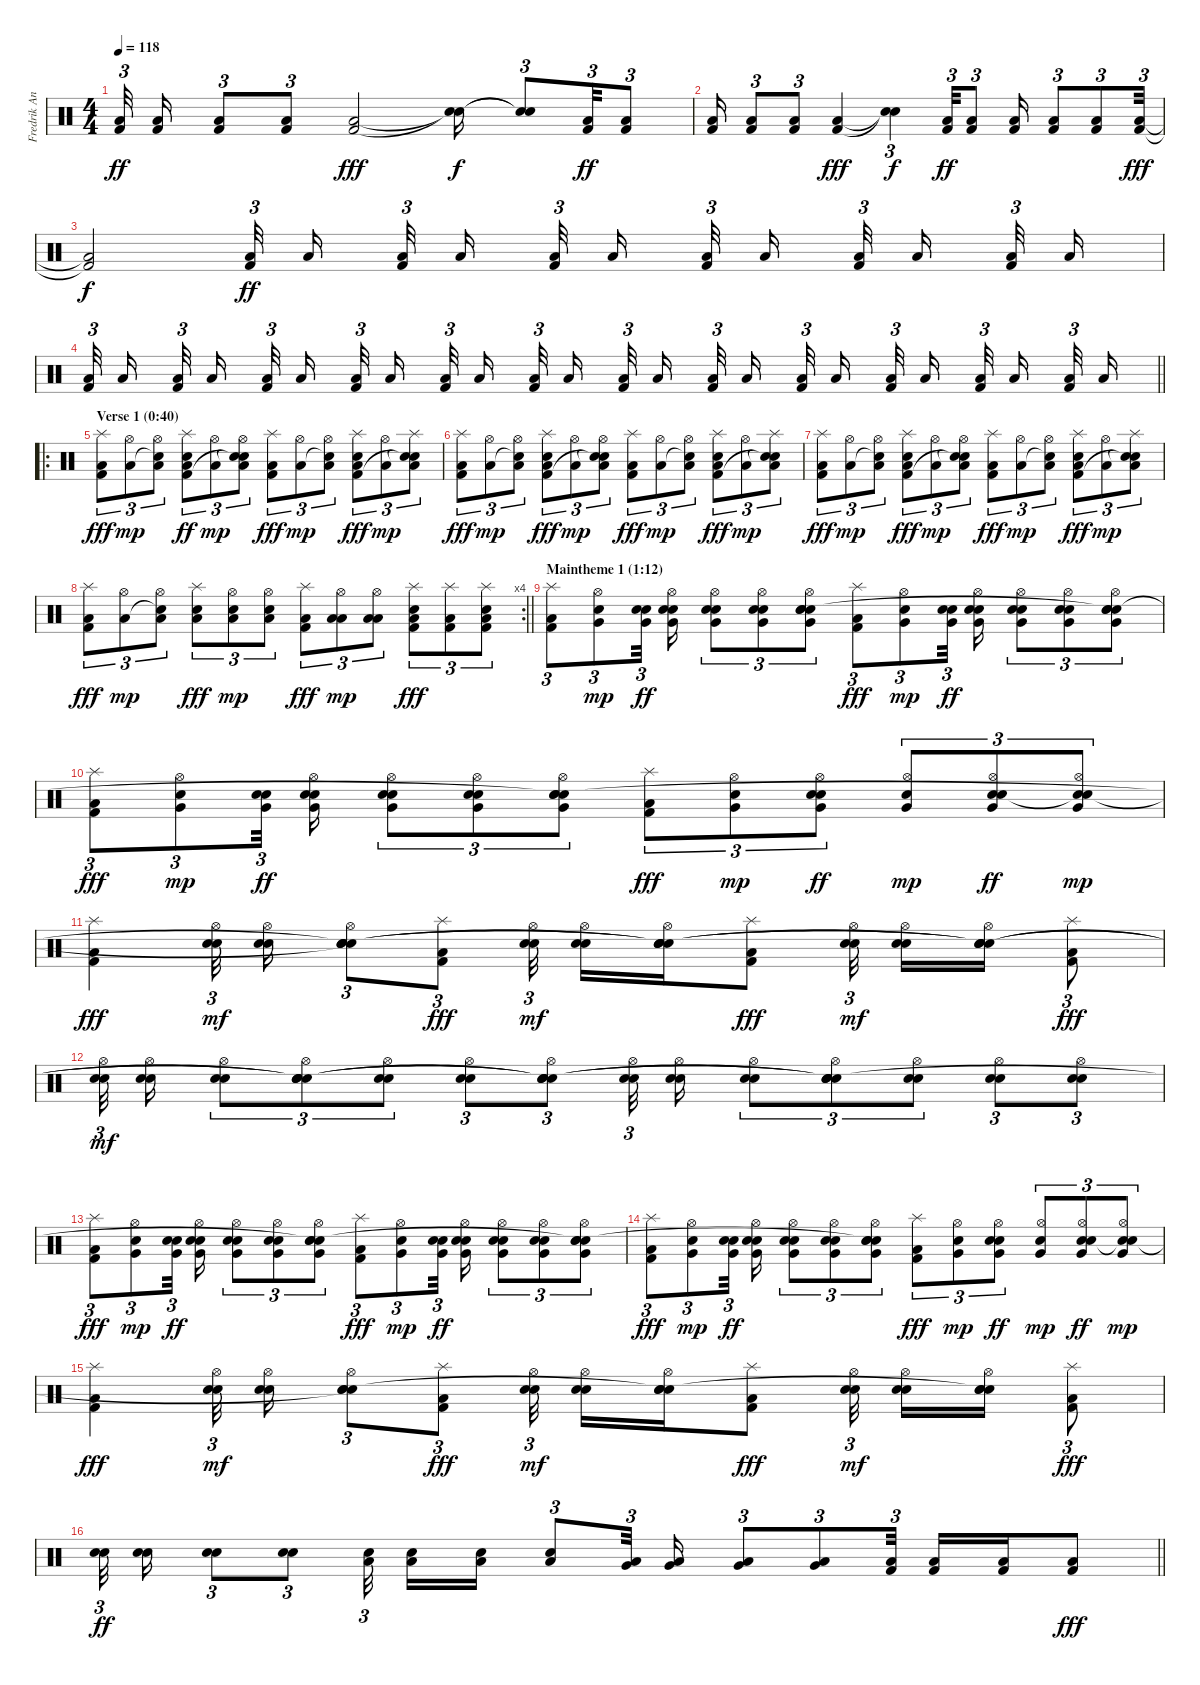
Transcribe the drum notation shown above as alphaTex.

\track ("Fredrik Andersson " "Fredrik An") {instrument percussion}
\staff {score}
\articulation defaults
\ts (4 4)
\tempo 118
\clef neutral
\ks c
("Kick (hit) 2" "Low Floor Tom (hit)").32{tu (3 2) dy ff volume 10 beam splitsecondary} ("Kick (hit) 2" "Low Floor Tom (hit)").16 ("Kick (hit) 2" "Low Floor Tom (hit)").8{tu (3 2)} ("Kick (hit) 2" "Low Floor Tom (hit)").8{tu (3 2)} ("Kick (hit) 2" "Low Floor Tom (hit)").2{dy fff} ("Snare (hit)"{t} "Snare (hit)"{t}).16{dy f} ("Snare (hit)"{t} "Snare (hit)"{t}).8{tu (3 2)} ("Kick (hit) 2" "Low Floor Tom (hit)").32{tu (3 2) dy ff} ("Kick (hit) 2" "Low Floor Tom (hit)").8{tu (3 2)} |
("Kick (hit) 2" "Low Floor Tom (hit)").16 ("Kick (hit) 2" "Low Floor Tom (hit)").8{tu (3 2)} ("Kick (hit) 2" "Low Floor Tom (hit)").8{tu (3 2)} ("Kick (hit) 2" "Low Floor Tom (hit)").4{dy fff} ("Snare (hit)"{t} "Snare (hit)"{t}).4{tu (3 2) dy f} ("Kick (hit) 2" "Low Floor Tom (hit)").32{tu (3 2) dy ff} ("Kick (hit) 2" "Low Floor Tom (hit)").8{tu (3 2)} ("Kick (hit) 2" "Low Floor Tom (hit)").16 ("Kick (hit) 2" "Low Floor Tom (hit)").8{tu (3 2)} ("Kick (hit) 2" "Low Floor Tom (hit)").8{tu (3 2)} ("Kick (hit) 2" "Low Floor Tom (hit)").32{tu (3 2) dy fff} |
("Kick (hit) 2"{t} "Low Floor Tom (hit)"{t}).2{dy f volume 1} ("Kick (hit) 2" "Low Floor Tom (hit)").32{tu (3 2) dy ff volume 16 beam splitsecondary} "Low Floor Tom (hit)".16{beam splitsecondary} ("Kick (hit) 2" "Low Floor Tom (hit)").32{tu (3 2) beam splitsecondary} "Low Floor Tom (hit)".16{beam splitsecondary} ("Kick (hit) 2" "Low Floor Tom (hit)").32{tu (3 2)} "Low Floor Tom (hit)".16 ("Kick (hit) 2" "Low Floor Tom (hit)").32{tu (3 2) beam splitsecondary} "Low Floor Tom (hit)".16{beam splitsecondary} ("Kick (hit) 2" "Low Floor Tom (hit)").32{tu (3 2) beam splitsecondary} "Low Floor Tom (hit)".16{beam splitsecondary} ("Kick (hit) 2" "Low Floor Tom (hit)").32{tu (3 2)} "Low Floor Tom (hit)".16 |
\barLineRight lightlight
("Kick (hit) 2" "Low Floor Tom (hit)").32{tu (3 2) beam splitsecondary} "Low Floor Tom (hit)".16{beam splitsecondary} ("Kick (hit) 2" "Low Floor Tom (hit)").32{tu (3 2) beam splitsecondary} "Low Floor Tom (hit)".16{beam splitsecondary} ("Kick (hit) 2" "Low Floor Tom (hit)").32{tu (3 2)} "Low Floor Tom (hit)".16 ("Kick (hit) 2" "Low Floor Tom (hit)").32{tu (3 2) beam splitsecondary} "Low Floor Tom (hit)".16{beam splitsecondary} ("Kick (hit) 2" "Low Floor Tom (hit)").32{tu (3 2) beam splitsecondary} "Low Floor Tom (hit)".16{beam splitsecondary} ("Kick (hit) 2" "Low Floor Tom (hit)").32{tu (3 2)} "Low Floor Tom (hit)".16 ("Kick (hit) 2" "Low Floor Tom (hit)").32{tu (3 2) beam splitsecondary} "Low Floor Tom (hit)".16{beam splitsecondary} ("Kick (hit) 2" "Low Floor Tom (hit)").32{tu (3 2) beam splitsecondary} "Low Floor Tom (hit)".16{beam splitsecondary} ("Kick (hit) 2" "Low Floor Tom (hit)").32{tu (3 2)} "Low Floor Tom (hit)".16 ("Kick (hit) 2" "Low Floor Tom (hit)").32{tu (3 2) beam splitsecondary} "Low Floor Tom (hit)".16{beam splitsecondary} ("Kick (hit) 2" "Low Floor Tom (hit)").32{tu (3 2) beam splitsecondary} "Low Floor Tom (hit)".16{beam splitsecondary} ("Kick (hit) 2" "Low Floor Tom (hit)").32{tu (3 2)} "Low Floor Tom (hit)".16 |
\ro
\section ("" "Verse 1 (0:40)")
("Splash (hit)" "Kick (hit) 2" "Low Floor Tom (hit)").8{tu (3 2) dy fff volume 13} ("Hi-Hat (open)" "Low Floor Tom (hit)").8{tu (3 2) dy mp} ("Hi-Hat (open)" "Snare (hit)"{t} "Low Floor Tom (hit)").8{tu (3 2)} ("Splash (hit)" "Snare (hit) 2" "Kick (hit) 2" "Low Floor Tom (hit)").8{tu (3 2) dy ff} ("Hi-Hat (open)" "Low Floor Tom (hit)").8{tu (3 2) dy mp} ("Hi-Hat (open)" "Snare (hit)"{t} "Snare (hit)"{t} "Low Floor Tom (hit)").8{tu (3 2)} ("Splash (hit)" "Kick (hit) 2" "Low Floor Tom (hit)").8{tu (3 2) dy fff} ("Hi-Hat (open)" "Low Floor Tom (hit)").8{tu (3 2) dy mp} ("Hi-Hat (open)" "Snare (hit)"{t} "Low Floor Tom (hit)").8{tu (3 2)} ("Splash (hit)" "Snare (hit) 2" "Kick (hit) 2" "Low Floor Tom (hit)").8{tu (3 2) dy fff} ("Hi-Hat (open)" "Low Floor Tom (hit)").8{tu (3 2) dy mp} ("Splash (hit)" "Snare (hit)"{t} "Snare (hit)"{t} "Low Floor Tom (hit)").8{tu (3 2)} |
("Splash (hit)" "Kick (hit) 2" "Low Floor Tom (hit)").8{tu (3 2) dy fff} ("Hi-Hat (open)" "Low Floor Tom (hit)").8{tu (3 2) dy mp} ("Hi-Hat (open)" "Snare (hit)"{t} "Low Floor Tom (hit)").8{tu (3 2)} ("Splash (hit)" "Snare (hit) 2" "Kick (hit) 2" "Low Floor Tom (hit)").8{tu (3 2) dy fff} ("Hi-Hat (open)" "Low Floor Tom (hit)").8{tu (3 2) dy mp} ("Hi-Hat (open)" "Snare (hit)"{t} "Snare (hit)"{t} "Low Floor Tom (hit)").8{tu (3 2)} ("Splash (hit)" "Kick (hit) 2" "Low Floor Tom (hit)").8{tu (3 2) dy fff} ("Hi-Hat (open)" "Low Floor Tom (hit)").8{tu (3 2) dy mp} ("Hi-Hat (open)" "Snare (hit)"{t} "Low Floor Tom (hit)").8{tu (3 2)} ("Splash (hit)" "Snare (hit) 2" "Kick (hit) 2" "Low Floor Tom (hit)").8{tu (3 2) dy fff} ("Hi-Hat (open)" "Low Floor Tom (hit)").8{tu (3 2) dy mp} ("Splash (hit)" "Snare (hit)"{t} "Snare (hit)"{t} "Low Floor Tom (hit)").8{tu (3 2)} |
("Splash (hit)" "Kick (hit) 2" "Low Floor Tom (hit)").8{tu (3 2) dy fff} ("Hi-Hat (open)" "Low Floor Tom (hit)").8{tu (3 2) dy mp} ("Hi-Hat (open)" "Snare (hit)"{t} "Low Floor Tom (hit)").8{tu (3 2)} ("Splash (hit)" "Snare (hit) 2" "Kick (hit) 2" "Low Floor Tom (hit)").8{tu (3 2) dy fff} ("Hi-Hat (open)" "Low Floor Tom (hit)").8{tu (3 2) dy mp} ("Hi-Hat (open)" "Snare (hit)"{t} "Snare (hit)"{t} "Low Floor Tom (hit)").8{tu (3 2)} ("Splash (hit)" "Kick (hit) 2" "Low Floor Tom (hit)").8{tu (3 2) dy fff} ("Hi-Hat (open)" "Low Floor Tom (hit)").8{tu (3 2) dy mp} ("Hi-Hat (open)" "Snare (hit)"{t} "Low Floor Tom (hit)").8{tu (3 2)} ("Splash (hit)" "Snare (hit) 2" "Kick (hit) 2" "Low Floor Tom (hit)").8{tu (3 2) dy fff} ("Hi-Hat (open)" "Low Floor Tom (hit)").8{tu (3 2) dy mp} ("Splash (hit)" "Snare (hit)"{t} "Snare (hit)"{t} "Low Floor Tom (hit)").8{tu (3 2)} |
\rc 4
\barLineRight lightlight
("Splash (hit)" "Kick (hit) 2" "Low Floor Tom (hit)").8{tu (3 2) dy fff} ("Hi-Hat (open)" "Low Floor Tom (hit)").8{tu (3 2) dy mp} ("Hi-Hat (open)" "Snare (hit)"{t} "Low Floor Tom (hit)").8{tu (3 2)} ("Splash (hit)" "Snare (hit) 2" "Low Floor Tom (hit)").8{tu (3 2) dy fff} ("Hi-Hat (open)" "Snare (hit) 2" "Low Floor Tom (hit)").8{tu (3 2) dy mp} ("Hi-Hat (open)" "Snare (hit) 2" "Low Floor Tom (hit)").8{tu (3 2)} ("Splash (hit)" "Kick (hit) 2" "Low Floor Tom (hit)").8{tu (3 2) dy fff} ("Hi-Hat (open)" "Low Tom (hit)" "Low Floor Tom (hit)").8{tu (3 2) dy mp} ("Hi-Hat (open)" "Low Tom (hit)" "Low Floor Tom (hit)").8{tu (3 2)} ("Splash (hit)" "Snare (hit) 2" "Kick (hit) 2" "Low Floor Tom (hit)").8{tu (3 2) dy fff} ("Splash (hit)" "Kick (hit) 2" "Low Floor Tom (hit)").8{tu (3 2)} ("Splash (hit)" "Snare (hit) 2" "Kick (hit) 2" "Low Floor Tom (hit)").8{tu (3 2)} |
\section ("" "Maintheme 1 (1:12)")
("Splash (hit)" "Kick (hit) 2" "Low Floor Tom (hit)").8{tu (3 2)} ("Hi-Hat (open)" "Very Low Tom (hit)" "Snare (hit) 2").8{tu (3 2) dy mp} ("Very Low Tom (hit)" "Snare (hit) 2" "Electric Snare (hit)").32{tu (3 2) dy ff beam splitsecondary} ("Hi-Hat (open)" "Very Low Tom (hit)" "Snare (hit) 2" "Electric Snare (hit)").16 ("Hi-Hat (open)" "Very Low Tom (hit)" "Snare (hit) 2" "Electric Snare (hit)").8{tu (3 2)} ("Hi-Hat (open)" "Very Low Tom (hit)" "Snare (hit) 2" "Electric Snare (hit)").8{tu (3 2)} ("Hi-Hat (open)" "Very Low Tom (hit)" "Snare (hit) 2" "Electric Snare (hit)" "Snare (hit)").8{tu (3 2)} ("Splash (hit)" "Kick (hit) 2" "Low Floor Tom (hit)").8{tu (3 2) dy fff} ("Hi-Hat (open)" "Very Low Tom (hit)" "Snare (hit) 2").8{tu (3 2) dy mp} ("Very Low Tom (hit)" "Snare (hit) 2" "Electric Snare (hit)").32{tu (3 2) dy ff beam splitsecondary} ("Hi-Hat (open)" "Very Low Tom (hit)" "Snare (hit) 2" "Electric Snare (hit)").16 ("Hi-Hat (open)" "Very Low Tom (hit)" "Snare (hit) 2" "Electric Snare (hit)").8{tu (3 2)} ("Hi-Hat (open)" "Very Low Tom (hit)" "Snare (hit) 2" "Electric Snare (hit)").8{tu (3 2)} ("Hi-Hat (open)" "Very Low Tom (hit)" "Snare (hit) 2" "Electric Snare (hit)" "Snare (hit)"{t}).8{tu (3 2)} |
("Splash (hit)" "Kick (hit) 2" "Low Floor Tom (hit)").8{tu (3 2) dy fff} ("Hi-Hat (open)" "Very Low Tom (hit)" "Snare (hit) 2").8{tu (3 2) dy mp} ("Very Low Tom (hit)" "Snare (hit) 2" "Electric Snare (hit)").32{tu (3 2) dy ff beam splitsecondary} ("Hi-Hat (open)" "Very Low Tom (hit)" "Snare (hit) 2" "Electric Snare (hit)").16 ("Hi-Hat (open)" "Very Low Tom (hit)" "Snare (hit) 2" "Electric Snare (hit)").8{tu (3 2)} ("Hi-Hat (open)" "Very Low Tom (hit)" "Snare (hit) 2" "Electric Snare (hit)").8{tu (3 2)} ("Hi-Hat (open)" "Very Low Tom (hit)" "Snare (hit) 2" "Electric Snare (hit)" "Snare (hit)"{t}).8{tu (3 2)} ("Splash (hit)" "Kick (hit) 2" "Low Floor Tom (hit)").8{tu (3 2) dy fff} ("Hi-Hat (open)" "Very Low Tom (hit)" "Snare (hit) 2").8{tu (3 2) dy mp} ("Hi-Hat (open)" "Very Low Tom (hit)" "Snare (hit) 2" "Electric Snare (hit)").8{tu (3 2) dy ff} ("Hi-Hat (open)" "Very Low Tom (hit)" "Snare (hit) 2").8{tu (3 2) dy mp} ("Hi-Hat (open)" "Very Low Tom (hit)" "Snare (hit) 2" "Electric Snare (hit)").8{tu (3 2) dy ff} ("Hi-Hat (open)" "Very Low Tom (hit)" "Snare (hit) 2" "Snare (hit)"{t}).8{tu (3 2) dy mp} |
("Splash (hit)" "Kick (hit) 2" "Low Floor Tom (hit)").4{dy fff} ("Hi-Hat (open)" "Snare (hit) 2" "Electric Snare (hit)").32{tu (3 2) dy mf beam splitsecondary} ("Hi-Hat (open)" "Snare (hit) 2" "Electric Snare (hit)").16 ("Hi-Hat (open)" "Snare (hit) 2" "Electric Snare (hit)" "Snare (hit)"{t} "Snare (hit)"{t}).8{tu (3 2)} ("Splash (hit)" "Kick (hit) 2" "Low Floor Tom (hit)").8{tu (3 2) dy fff} ("Hi-Hat (open)" "Snare (hit) 2" "Electric Snare (hit)").32{tu (3 2) dy mf beam splitsecondary} ("Hi-Hat (open)" "Snare (hit) 2" "Electric Snare (hit)").16 ("Hi-Hat (open)" "Snare (hit) 2" "Electric Snare (hit)" "Snare (hit)"{t} "Snare (hit)"{t}).16 ("Splash (hit)" "Kick (hit) 2" "Low Floor Tom (hit)").8{dy fff} ("Hi-Hat (open)" "Snare (hit) 2" "Electric Snare (hit)").32{tu (3 2) dy mf beam splitsecondary} ("Hi-Hat (open)" "Snare (hit) 2" "Electric Snare (hit)").16 ("Hi-Hat (open)" "Snare (hit) 2" "Electric Snare (hit)" "Snare (hit)"{t} "Snare (hit)"{t}).16 ("Splash (hit)" "Kick (hit) 2" "Low Floor Tom (hit)").8{tu (3 2) dy fff} |
("Hi-Hat (open)" "Snare (hit) 2" "Electric Snare (hit)").32{tu (3 2) dy mf beam splitsecondary} ("Hi-Hat (open)" "Snare (hit) 2" "Electric Snare (hit)").16 ("Hi-Hat (open)" "Snare (hit) 2" "Electric Snare (hit)").8{tu (3 2)} ("Hi-Hat (open)" "Snare (hit) 2" "Electric Snare (hit)" "Snare (hit)"{t} "Snare (hit)"{t}).8{tu (3 2)} ("Hi-Hat (open)" "Snare (hit) 2" "Electric Snare (hit)").8{tu (3 2)} ("Hi-Hat (open)" "Snare (hit) 2" "Electric Snare (hit)").8{tu (3 2)} ("Hi-Hat (open)" "Snare (hit) 2" "Electric Snare (hit)" "Snare (hit)"{t} "Snare (hit)"{t}).8{tu (3 2)} ("Hi-Hat (open)" "Snare (hit) 2" "Electric Snare (hit)").32{tu (3 2) beam splitsecondary} ("Hi-Hat (open)" "Snare (hit) 2" "Electric Snare (hit)").16 ("Hi-Hat (open)" "Snare (hit) 2" "Electric Snare (hit)").8{tu (3 2)} ("Hi-Hat (open)" "Snare (hit) 2" "Electric Snare (hit)" "Snare (hit)"{t} "Snare (hit)"{t}).8{tu (3 2)} ("Hi-Hat (open)" "Snare (hit) 2" "Electric Snare (hit)").8{tu (3 2)} ("Hi-Hat (open)" "Snare (hit) 2" "Electric Snare (hit)").8{tu (3 2)} ("Hi-Hat (open)" "Snare (hit) 2" "Electric Snare (hit)").8{tu (3 2)} |
("Splash (hit)" "Kick (hit) 2" "Low Floor Tom (hit)").8{tu (3 2) dy fff} ("Hi-Hat (open)" "Very Low Tom (hit)" "Snare (hit) 2").8{tu (3 2) dy mp} ("Very Low Tom (hit)" "Snare (hit) 2" "Electric Snare (hit)").32{tu (3 2) dy ff beam splitsecondary} ("Hi-Hat (open)" "Very Low Tom (hit)" "Snare (hit) 2" "Electric Snare (hit)").16 ("Hi-Hat (open)" "Very Low Tom (hit)" "Snare (hit) 2" "Electric Snare (hit)").8{tu (3 2)} ("Hi-Hat (open)" "Very Low Tom (hit)" "Snare (hit) 2" "Electric Snare (hit)").8{tu (3 2)} ("Hi-Hat (open)" "Very Low Tom (hit)" "Snare (hit) 2" "Electric Snare (hit)" "Snare (hit)"{t}).8{tu (3 2)} ("Splash (hit)" "Kick (hit) 2" "Low Floor Tom (hit)").8{tu (3 2) dy fff} ("Hi-Hat (open)" "Very Low Tom (hit)" "Snare (hit) 2").8{tu (3 2) dy mp} ("Very Low Tom (hit)" "Snare (hit) 2" "Electric Snare (hit)").32{tu (3 2) dy ff beam splitsecondary} ("Hi-Hat (open)" "Very Low Tom (hit)" "Snare (hit) 2" "Electric Snare (hit)").16 ("Hi-Hat (open)" "Very Low Tom (hit)" "Snare (hit) 2" "Electric Snare (hit)").8{tu (3 2)} ("Hi-Hat (open)" "Very Low Tom (hit)" "Snare (hit) 2" "Electric Snare (hit)").8{tu (3 2)} ("Hi-Hat (open)" "Very Low Tom (hit)" "Snare (hit) 2" "Electric Snare (hit)" "Snare (hit)"{t}).8{tu (3 2)} |
("Splash (hit)" "Kick (hit) 2" "Low Floor Tom (hit)").8{tu (3 2) dy fff} ("Hi-Hat (open)" "Very Low Tom (hit)" "Snare (hit) 2").8{tu (3 2) dy mp} ("Very Low Tom (hit)" "Snare (hit) 2" "Electric Snare (hit)").32{tu (3 2) dy ff beam splitsecondary} ("Hi-Hat (open)" "Very Low Tom (hit)" "Snare (hit) 2" "Electric Snare (hit)").16 ("Hi-Hat (open)" "Very Low Tom (hit)" "Snare (hit) 2" "Electric Snare (hit)").8{tu (3 2)} ("Hi-Hat (open)" "Very Low Tom (hit)" "Snare (hit) 2" "Electric Snare (hit)").8{tu (3 2)} ("Hi-Hat (open)" "Very Low Tom (hit)" "Snare (hit) 2" "Electric Snare (hit)" "Snare (hit)"{t}).8{tu (3 2)} ("Splash (hit)" "Kick (hit) 2" "Low Floor Tom (hit)").8{tu (3 2) dy fff} ("Hi-Hat (open)" "Very Low Tom (hit)" "Snare (hit) 2").8{tu (3 2) dy mp} ("Hi-Hat (open)" "Very Low Tom (hit)" "Snare (hit) 2" "Electric Snare (hit)").8{tu (3 2) dy ff} ("Hi-Hat (open)" "Very Low Tom (hit)" "Snare (hit) 2").8{tu (3 2) dy mp} ("Hi-Hat (open)" "Very Low Tom (hit)" "Snare (hit) 2" "Electric Snare (hit)").8{tu (3 2) dy ff} ("Hi-Hat (open)" "Very Low Tom (hit)" "Snare (hit) 2" "Snare (hit)"{t}).8{tu (3 2) dy mp} |
("Splash (hit)" "Kick (hit) 2" "Low Floor Tom (hit)").4{dy fff} ("Hi-Hat (open)" "Snare (hit) 2" "Electric Snare (hit)").32{tu (3 2) dy mf beam splitsecondary} ("Hi-Hat (open)" "Snare (hit) 2" "Electric Snare (hit)").16 ("Hi-Hat (open)" "Snare (hit) 2" "Electric Snare (hit)" "Snare (hit)"{t}).8{tu (3 2)} ("Splash (hit)" "Kick (hit) 2" "Low Floor Tom (hit)").8{tu (3 2) dy fff} ("Hi-Hat (open)" "Snare (hit) 2" "Electric Snare (hit)").32{tu (3 2) dy mf beam splitsecondary} ("Hi-Hat (open)" "Snare (hit) 2" "Electric Snare (hit)").16 ("Hi-Hat (open)" "Snare (hit) 2" "Electric Snare (hit)" "Snare (hit)"{t}).16 ("Splash (hit)" "Kick (hit) 2" "Low Floor Tom (hit)").8{dy fff} ("Hi-Hat (open)" "Snare (hit) 2" "Electric Snare (hit)").32{tu (3 2) dy mf beam splitsecondary} ("Hi-Hat (open)" "Snare (hit) 2" "Electric Snare (hit)").16 ("Hi-Hat (open)" "Snare (hit) 2" "Electric Snare (hit)" "Snare (hit)"{t}).16 ("Splash (hit)" "Kick (hit) 2" "Low Floor Tom (hit)").8{tu (3 2) dy fff} |
\barLineRight lightlight
("Snare (hit) 2" "Electric Snare (hit)").32{tu (3 2) dy ff beam splitsecondary} ("Snare (hit) 2" "Electric Snare (hit)").16 ("Snare (hit) 2" "Electric Snare (hit)").8{tu (3 2)} ("Snare (hit) 2" "Electric Snare (hit)").8{tu (3 2)} ("Electric Snare (hit)" "Low Tom (hit)").32{tu (3 2) beam splitsecondary} ("Electric Snare (hit)" "Low Tom (hit)").16 ("Electric Snare (hit)" "Low Tom (hit)").16 ("Electric Snare (hit)" "Low Tom (hit)").8{tu (3 2)} ("Very Low Tom (hit)" "Low Floor Tom (hit)").32{tu (3 2)} ("Very Low Tom (hit)" "Low Floor Tom (hit)").16 ("Very Low Tom (hit)" "Low Floor Tom (hit)").8{tu (3 2)} ("Very Low Tom (hit)" "Low Floor Tom (hit)").8{tu (3 2)} ("Kick (hit) 2" "Low Floor Tom (hit)").32{tu (3 2)} ("Kick (hit) 2" "Low Floor Tom (hit)").16 ("Kick (hit) 2" "Low Floor Tom (hit)").16 ("Kick (hit) 2" "Low Floor Tom (hit)").8{dy fff}
